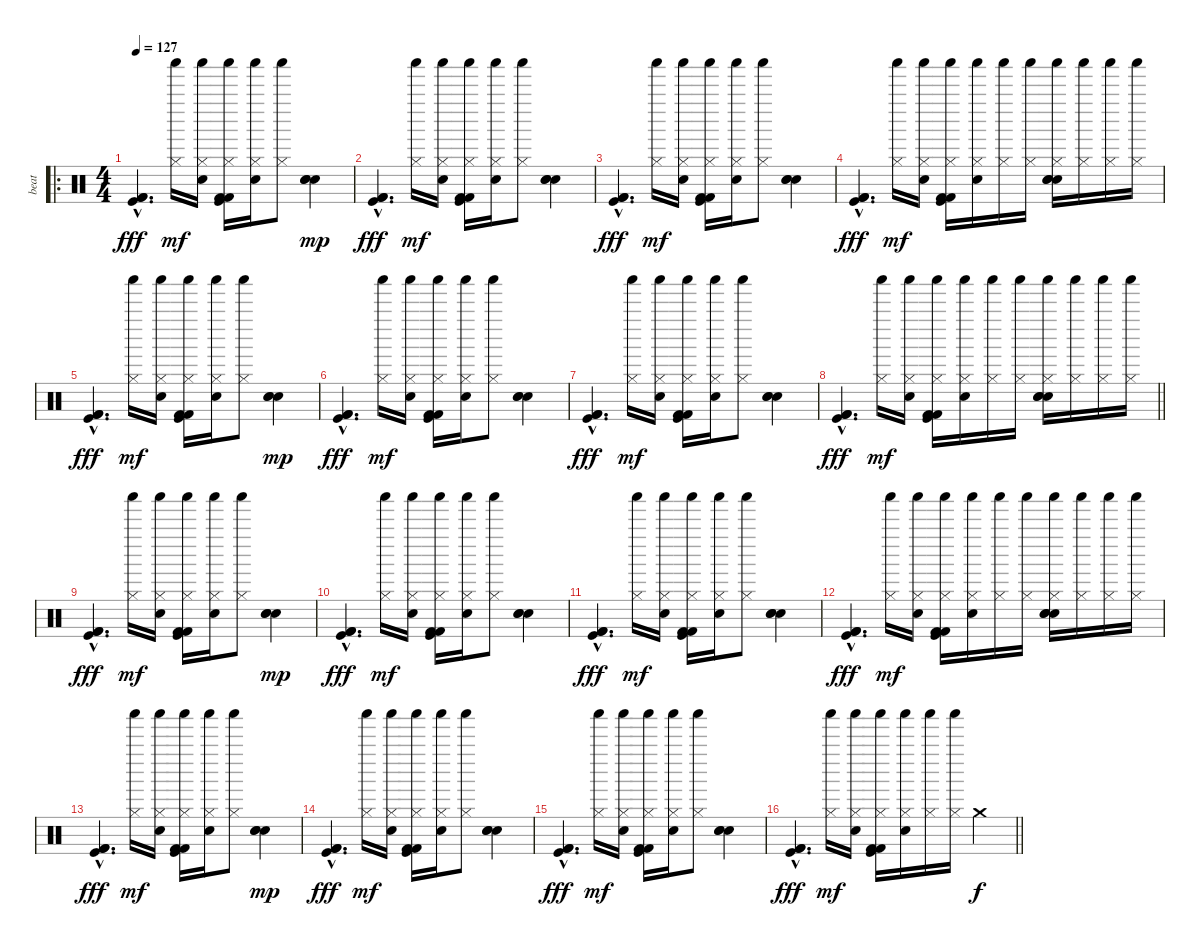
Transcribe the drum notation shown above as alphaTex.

\track ("beat" "beat") {instrument percussion}
\staff {score}
\articulation defaults
\ro
\ts (4 4)
\tempo 127
\clef neutral
\ks c
("Kick (hit)"{hac} "Kick (hit) 2"{hac} "Kick (hit) 2"{hac}).4{d dy fff} ("Shaker (hit)" "Hi-Hat (closed)").16{dy mf} ("Electric Snare (hit)" "Shaker (hit)" "Hi-Hat (closed)").16 ("Kick (hit)" "Kick (hit) 2" "Kick (hit) 2" "Shaker (hit)" "Hi-Hat (closed)").16 ("Electric Snare (hit)" "Shaker (hit)" "Hi-Hat (closed)").16 ("Shaker (hit)" "Hi-Hat (closed)").8 ("Snare (hit) 2" "Electric Snare (hit)" "Electric Snare (hit)").4{dy mp} |
("Kick (hit)"{hac} "Kick (hit) 2"{hac} "Kick (hit) 2"{hac}).4{d dy fff} ("Shaker (hit)" "Hi-Hat (closed)").16{dy mf} ("Electric Snare (hit)" "Shaker (hit)" "Hi-Hat (closed)").16 ("Kick (hit)" "Kick (hit) 2" "Kick (hit) 2" "Shaker (hit)" "Hi-Hat (closed)").16 ("Electric Snare (hit)" "Shaker (hit)" "Hi-Hat (closed)").16 ("Shaker (hit)" "Hi-Hat (closed)").8 ("Snare (hit) 2" "Electric Snare (hit)" "Electric Snare (hit)").4 |
("Kick (hit)"{hac} "Kick (hit) 2"{hac} "Kick (hit) 2"{hac}).4{d dy fff} ("Shaker (hit)" "Hi-Hat (closed)").16{dy mf} ("Electric Snare (hit)" "Shaker (hit)" "Hi-Hat (closed)").16 ("Kick (hit)" "Kick (hit) 2" "Kick (hit) 2" "Shaker (hit)" "Hi-Hat (closed)").16 ("Electric Snare (hit)" "Shaker (hit)" "Hi-Hat (closed)").16 ("Shaker (hit)" "Hi-Hat (closed)").8 ("Snare (hit) 2" "Electric Snare (hit)" "Electric Snare (hit)").4 |
("Kick (hit)"{hac} "Kick (hit) 2"{hac} "Kick (hit) 2"{hac}).4{d dy fff} ("Shaker (hit)" "Hi-Hat (closed)").16{dy mf} ("Electric Snare (hit)" "Shaker (hit)" "Hi-Hat (closed)").16 ("Kick (hit)" "Kick (hit) 2" "Kick (hit) 2" "Shaker (hit)" "Hi-Hat (closed)").16 ("Electric Snare (hit)" "Shaker (hit)" "Hi-Hat (closed)").16 ("Shaker (hit)" "Hi-Hat (closed)").16 ("Shaker (hit)" "Hi-Hat (closed)").16 ("Snare (hit) 2" "Electric Snare (hit)" "Electric Snare (hit)" "Shaker (hit)" "Hi-Hat (closed)").16 ("Shaker (hit)" "Hi-Hat (closed)").16 ("Shaker (hit)" "Hi-Hat (closed)").16 ("Shaker (hit)" "Hi-Hat (closed)").16 |
("Kick (hit)"{hac} "Kick (hit) 2"{hac} "Kick (hit) 2"{hac}).4{d dy fff} ("Shaker (hit)" "Hi-Hat (closed)").16{dy mf} ("Electric Snare (hit)" "Shaker (hit)" "Hi-Hat (closed)").16 ("Kick (hit)" "Kick (hit) 2" "Kick (hit) 2" "Shaker (hit)" "Hi-Hat (closed)").16 ("Electric Snare (hit)" "Shaker (hit)" "Hi-Hat (closed)").16 ("Shaker (hit)" "Hi-Hat (closed)").8 ("Snare (hit) 2" "Electric Snare (hit)" "Electric Snare (hit)").4{dy mp} |
("Kick (hit)"{hac} "Kick (hit) 2"{hac} "Kick (hit) 2"{hac}).4{d dy fff} ("Shaker (hit)" "Hi-Hat (closed)").16{dy mf} ("Electric Snare (hit)" "Shaker (hit)" "Hi-Hat (closed)").16 ("Kick (hit)" "Kick (hit) 2" "Kick (hit) 2" "Shaker (hit)" "Hi-Hat (closed)").16 ("Electric Snare (hit)" "Shaker (hit)" "Hi-Hat (closed)").16 ("Shaker (hit)" "Hi-Hat (closed)").8 ("Snare (hit) 2" "Electric Snare (hit)" "Electric Snare (hit)").4 |
("Kick (hit)"{hac} "Kick (hit) 2"{hac} "Kick (hit) 2"{hac}).4{d dy fff} ("Shaker (hit)" "Hi-Hat (closed)").16{dy mf} ("Electric Snare (hit)" "Shaker (hit)" "Hi-Hat (closed)").16 ("Kick (hit)" "Kick (hit) 2" "Kick (hit) 2" "Shaker (hit)" "Hi-Hat (closed)").16 ("Electric Snare (hit)" "Shaker (hit)" "Hi-Hat (closed)").16 ("Shaker (hit)" "Hi-Hat (closed)").8 ("Snare (hit) 2" "Electric Snare (hit)" "Electric Snare (hit)").4 |
\barLineRight lightlight
("Kick (hit)"{hac} "Kick (hit) 2"{hac} "Kick (hit) 2"{hac}).4{d dy fff} ("Shaker (hit)" "Hi-Hat (closed)").16{dy mf} ("Electric Snare (hit)" "Shaker (hit)" "Hi-Hat (closed)").16 ("Kick (hit)" "Kick (hit) 2" "Kick (hit) 2" "Shaker (hit)" "Hi-Hat (closed)").16 ("Electric Snare (hit)" "Shaker (hit)" "Hi-Hat (closed)").16 ("Shaker (hit)" "Hi-Hat (closed)").16 ("Shaker (hit)" "Hi-Hat (closed)").16 ("Snare (hit) 2" "Electric Snare (hit)" "Electric Snare (hit)" "Shaker (hit)" "Hi-Hat (closed)").16 ("Shaker (hit)" "Hi-Hat (closed)").16 ("Shaker (hit)" "Hi-Hat (closed)").16 ("Shaker (hit)" "Hi-Hat (closed)").16 |
("Kick (hit)"{hac} "Kick (hit) 2"{hac} "Kick (hit) 2"{hac}).4{d dy fff} ("Shaker (hit)" "Hi-Hat (closed)").16{dy mf} ("Electric Snare (hit)" "Shaker (hit)" "Hi-Hat (closed)").16 ("Kick (hit)" "Kick (hit) 2" "Kick (hit) 2" "Shaker (hit)" "Hi-Hat (closed)").16 ("Electric Snare (hit)" "Shaker (hit)" "Hi-Hat (closed)").16 ("Shaker (hit)" "Hi-Hat (closed)").8 ("Snare (hit) 2" "Electric Snare (hit)" "Electric Snare (hit)").4{dy mp} |
("Kick (hit)"{hac} "Kick (hit) 2"{hac} "Kick (hit) 2"{hac}).4{d dy fff} ("Shaker (hit)" "Hi-Hat (closed)").16{dy mf} ("Electric Snare (hit)" "Shaker (hit)" "Hi-Hat (closed)").16 ("Kick (hit)" "Kick (hit) 2" "Kick (hit) 2" "Shaker (hit)" "Hi-Hat (closed)").16 ("Electric Snare (hit)" "Shaker (hit)" "Hi-Hat (closed)").16 ("Shaker (hit)" "Hi-Hat (closed)").8 ("Snare (hit) 2" "Electric Snare (hit)" "Electric Snare (hit)").4 |
("Kick (hit)"{hac} "Kick (hit) 2"{hac} "Kick (hit) 2"{hac}).4{d dy fff} ("Shaker (hit)" "Hi-Hat (closed)").16{dy mf} ("Electric Snare (hit)" "Shaker (hit)" "Hi-Hat (closed)").16 ("Kick (hit)" "Kick (hit) 2" "Kick (hit) 2" "Shaker (hit)" "Hi-Hat (closed)").16 ("Electric Snare (hit)" "Shaker (hit)" "Hi-Hat (closed)").16 ("Shaker (hit)" "Hi-Hat (closed)").8 ("Snare (hit) 2" "Electric Snare (hit)" "Electric Snare (hit)").4 |
("Kick (hit)"{hac} "Kick (hit) 2"{hac} "Kick (hit) 2"{hac}).4{d dy fff} ("Shaker (hit)" "Hi-Hat (closed)").16{dy mf} ("Electric Snare (hit)" "Shaker (hit)" "Hi-Hat (closed)").16 ("Kick (hit)" "Kick (hit) 2" "Kick (hit) 2" "Shaker (hit)" "Hi-Hat (closed)").16 ("Electric Snare (hit)" "Shaker (hit)" "Hi-Hat (closed)").16 ("Shaker (hit)" "Hi-Hat (closed)").16 ("Shaker (hit)" "Hi-Hat (closed)").16 ("Snare (hit) 2" "Electric Snare (hit)" "Electric Snare (hit)" "Shaker (hit)" "Hi-Hat (closed)").16 ("Shaker (hit)" "Hi-Hat (closed)").16 ("Shaker (hit)" "Hi-Hat (closed)").16 ("Shaker (hit)" "Hi-Hat (closed)").16 |
("Kick (hit)"{hac} "Kick (hit) 2"{hac} "Kick (hit) 2"{hac}).4{d dy fff} ("Shaker (hit)" "Hi-Hat (closed)").16{dy mf} ("Electric Snare (hit)" "Shaker (hit)" "Hi-Hat (closed)").16 ("Kick (hit)" "Kick (hit) 2" "Kick (hit) 2" "Shaker (hit)" "Hi-Hat (closed)").16 ("Electric Snare (hit)" "Shaker (hit)" "Hi-Hat (closed)").16 ("Shaker (hit)" "Hi-Hat (closed)").8 ("Snare (hit) 2" "Electric Snare (hit)" "Electric Snare (hit)").4{dy mp} |
("Kick (hit)"{hac} "Kick (hit) 2"{hac} "Kick (hit) 2"{hac}).4{d dy fff} ("Shaker (hit)" "Hi-Hat (closed)").16{dy mf} ("Electric Snare (hit)" "Shaker (hit)" "Hi-Hat (closed)").16 ("Kick (hit)" "Kick (hit) 2" "Kick (hit) 2" "Shaker (hit)" "Hi-Hat (closed)").16 ("Electric Snare (hit)" "Shaker (hit)" "Hi-Hat (closed)").16 ("Shaker (hit)" "Hi-Hat (closed)").8 ("Snare (hit) 2" "Electric Snare (hit)" "Electric Snare (hit)").4 |
("Kick (hit)"{hac} "Kick (hit) 2"{hac} "Kick (hit) 2"{hac}).4{d dy fff} ("Shaker (hit)" "Hi-Hat (closed)").16{dy mf} ("Electric Snare (hit)" "Shaker (hit)" "Hi-Hat (closed)").16 ("Kick (hit)" "Kick (hit) 2" "Kick (hit) 2" "Shaker (hit)" "Hi-Hat (closed)").16 ("Electric Snare (hit)" "Shaker (hit)" "Hi-Hat (closed)").16 ("Shaker (hit)" "Hi-Hat (closed)").8 ("Snare (hit) 2" "Electric Snare (hit)" "Electric Snare (hit)").4 |
\barLineRight lightlight
("Kick (hit)"{hac} "Kick (hit) 2"{hac} "Kick (hit) 2"{hac}).4{d dy fff} ("Shaker (hit)" "Hi-Hat (closed)").16{dy mf} ("Electric Snare (hit)" "Shaker (hit)" "Hi-Hat (closed)").16 ("Kick (hit)" "Kick (hit) 2" "Kick (hit) 2" "Shaker (hit)" "Hi-Hat (closed)").16 ("Electric Snare (hit)" "Shaker (hit)" "Hi-Hat (closed)").16 ("Shaker (hit)" "Hi-Hat (closed)").16 ("Shaker (hit)" "Hi-Hat (closed)").16 "Crash medium (hit)".4{dy f}
